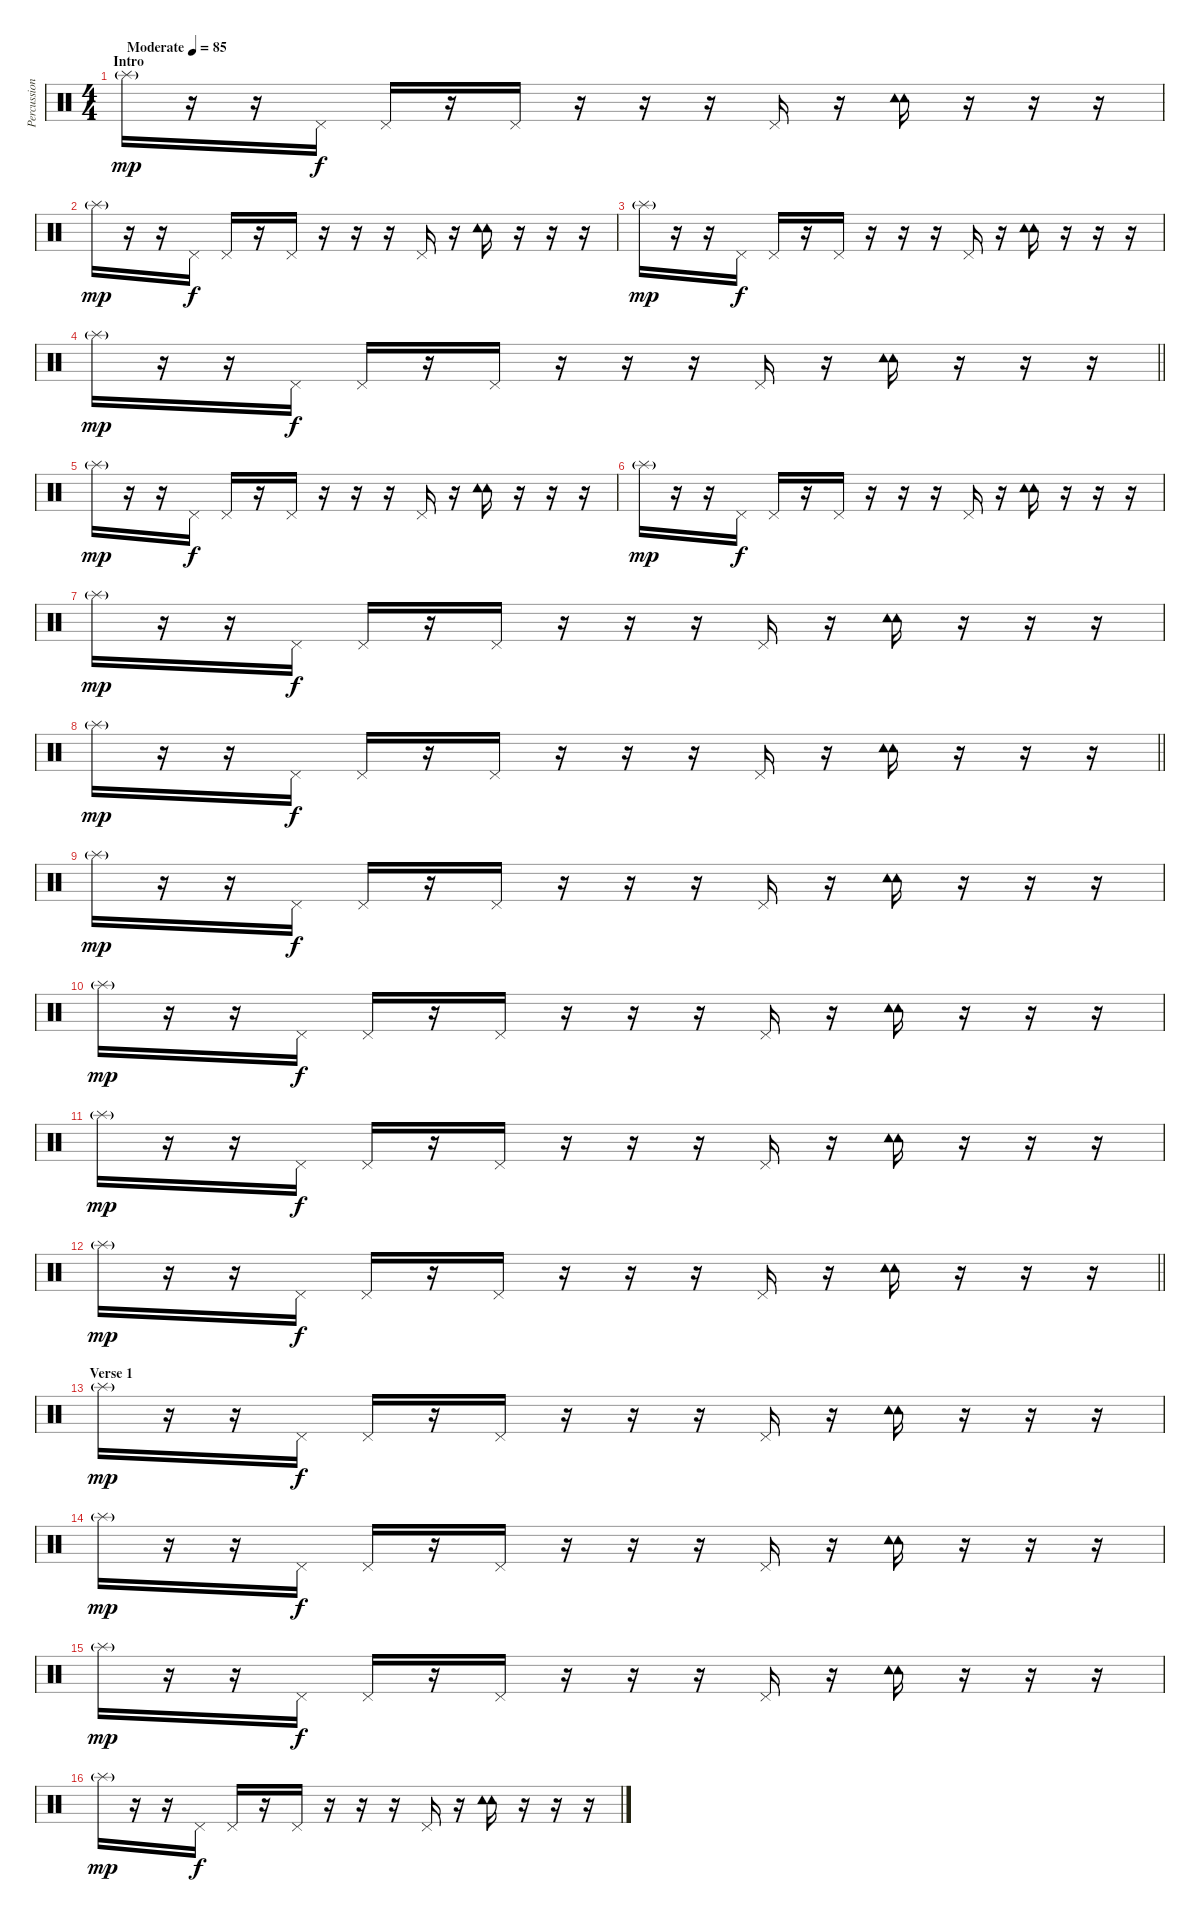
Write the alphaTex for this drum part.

\track ("Percussion" "Percussion") {instrument percussion}
\staff {score}
\articulation defaults
\ts (4 4)
\section ("" "Intro")
\tempo (85 "Moderate")
\clef neutral
\ks c "Splash (hit)"{g}.16{dy mp}
r.16 r.16 "Pedal Hi-Hat (hit)".16{dy f} "Pedal Hi-Hat (hit)".16 r.16 "Pedal Hi-Hat (hit)".16 r.16 r.16 r.16 "Pedal Hi-Hat (hit)".16 r.16 ("Tambourine (hit)" "Tambourine (hit)").16 r.16 r.16 r.16 |
"Splash (hit)"{g}.16{dy mp} r.16 r.16 "Pedal Hi-Hat (hit)".16{dy f} "Pedal Hi-Hat (hit)".16 r.16 "Pedal Hi-Hat (hit)".16 r.16 r.16 r.16 "Pedal Hi-Hat (hit)".16 r.16 ("Tambourine (hit)" "Tambourine (hit)").16 r.16 r.16 r.16 |
"Splash (hit)"{g}.16{dy mp} r.16 r.16 "Pedal Hi-Hat (hit)".16{dy f} "Pedal Hi-Hat (hit)".16 r.16 "Pedal Hi-Hat (hit)".16 r.16 r.16 r.16 "Pedal Hi-Hat (hit)".16 r.16 ("Tambourine (hit)" "Tambourine (hit)").16 r.16 r.16 r.16 |
\barLineRight lightlight "Splash (hit)"{g}.16{dy mp}
r.16 r.16 "Pedal Hi-Hat (hit)".16{dy f} "Pedal Hi-Hat (hit)".16 r.16 "Pedal Hi-Hat (hit)".16 r.16 r.16 r.16 "Pedal Hi-Hat (hit)".16 r.16 ("Tambourine (hit)" "Tambourine (hit)").16 r.16 r.16 r.16 |
"Splash (hit)"{g}.16{dy mp} r.16 r.16 "Pedal Hi-Hat (hit)".16{dy f} "Pedal Hi-Hat (hit)".16 r.16 "Pedal Hi-Hat (hit)".16 r.16 r.16 r.16 "Pedal Hi-Hat (hit)".16 r.16 ("Tambourine (hit)" "Tambourine (hit)").16 r.16 r.16 r.16 |
"Splash (hit)"{g}.16{dy mp} r.16 r.16 "Pedal Hi-Hat (hit)".16{dy f} "Pedal Hi-Hat (hit)".16 r.16 "Pedal Hi-Hat (hit)".16 r.16 r.16 r.16 "Pedal Hi-Hat (hit)".16 r.16 ("Tambourine (hit)" "Tambourine (hit)").16 r.16 r.16 r.16 |
"Splash (hit)"{g}.16{dy mp} r.16 r.16 "Pedal Hi-Hat (hit)".16{dy f} "Pedal Hi-Hat (hit)".16 r.16 "Pedal Hi-Hat (hit)".16 r.16 r.16 r.16 "Pedal Hi-Hat (hit)".16 r.16 ("Tambourine (hit)" "Tambourine (hit)").16 r.16 r.16 r.16 |
\barLineRight lightlight "Splash (hit)"{g}.16{dy mp}
r.16 r.16 "Pedal Hi-Hat (hit)".16{dy f} "Pedal Hi-Hat (hit)".16 r.16 "Pedal Hi-Hat (hit)".16 r.16 r.16 r.16 "Pedal Hi-Hat (hit)".16 r.16 ("Tambourine (hit)" "Tambourine (hit)").16 r.16 r.16 r.16 |
"Splash (hit)"{g}.16{dy mp} r.16 r.16 "Pedal Hi-Hat (hit)".16{dy f} "Pedal Hi-Hat (hit)".16 r.16 "Pedal Hi-Hat (hit)".16 r.16 r.16 r.16 "Pedal Hi-Hat (hit)".16 r.16 ("Tambourine (hit)" "Tambourine (hit)").16 r.16 r.16 r.16 |
"Splash (hit)"{g}.16{dy mp} r.16 r.16 "Pedal Hi-Hat (hit)".16{dy f} "Pedal Hi-Hat (hit)".16 r.16 "Pedal Hi-Hat (hit)".16 r.16 r.16 r.16 "Pedal Hi-Hat (hit)".16 r.16 ("Tambourine (hit)" "Tambourine (hit)").16 r.16 r.16 r.16 |
"Splash (hit)"{g}.16{dy mp} r.16 r.16 "Pedal Hi-Hat (hit)".16{dy f} "Pedal Hi-Hat (hit)".16 r.16 "Pedal Hi-Hat (hit)".16 r.16 r.16 r.16 "Pedal Hi-Hat (hit)".16 r.16 ("Tambourine (hit)" "Tambourine (hit)").16 r.16 r.16 r.16 |
\barLineRight lightlight "Splash (hit)"{g}.16{dy mp}
r.16 r.16 "Pedal Hi-Hat (hit)".16{dy f} "Pedal Hi-Hat (hit)".16 r.16 "Pedal Hi-Hat (hit)".16 r.16 r.16 r.16 "Pedal Hi-Hat (hit)".16 r.16 ("Tambourine (hit)" "Tambourine (hit)").16 r.16 r.16 r.16 |
\section ("" "Verse 1")
"Splash (hit)"{g}.16{dy mp} r.16 r.16 "Pedal Hi-Hat (hit)".16{dy f} "Pedal Hi-Hat (hit)".16 r.16 "Pedal Hi-Hat (hit)".16 r.16 r.16 r.16 "Pedal Hi-Hat (hit)".16 r.16 ("Tambourine (hit)" "Tambourine (hit)").16 r.16 r.16 r.16 |
"Splash (hit)"{g}.16{dy mp} r.16 r.16 "Pedal Hi-Hat (hit)".16{dy f} "Pedal Hi-Hat (hit)".16 r.16 "Pedal Hi-Hat (hit)".16 r.16 r.16 r.16 "Pedal Hi-Hat (hit)".16 r.16 ("Tambourine (hit)" "Tambourine (hit)").16 r.16 r.16 r.16 |
"Splash (hit)"{g}.16{dy mp} r.16 r.16 "Pedal Hi-Hat (hit)".16{dy f} "Pedal Hi-Hat (hit)".16 r.16 "Pedal Hi-Hat (hit)".16 r.16 r.16 r.16 "Pedal Hi-Hat (hit)".16 r.16 ("Tambourine (hit)" "Tambourine (hit)").16 r.16 r.16 r.16 |
"Splash (hit)"{g}.16{dy mp} r.16 r.16 "Pedal Hi-Hat (hit)".16{dy f} "Pedal Hi-Hat (hit)".16 r.16 "Pedal Hi-Hat (hit)".16 r.16 r.16 r.16 "Pedal Hi-Hat (hit)".16 r.16 ("Tambourine (hit)" "Tambourine (hit)").16 r.16 r.16 r.16
